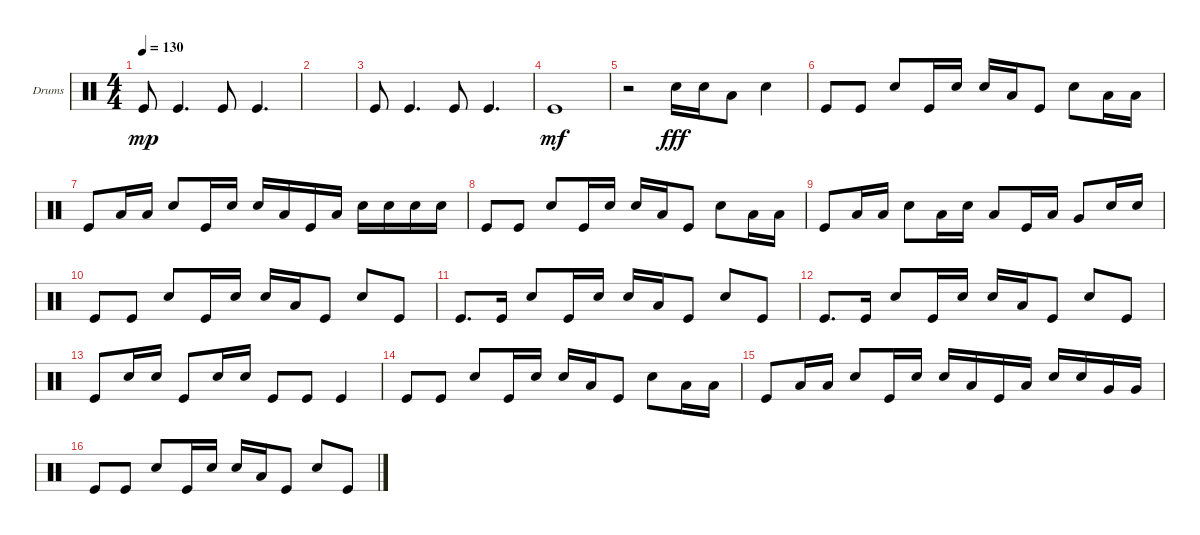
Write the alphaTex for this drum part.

\defaultSystemsLayout 4
\bracketExtendMode groupsimilarinstruments
\firstSystemTrackNameOrientation horizontal
\otherSystemsTrackNameOrientation horizontal
\track ("Helders" "Drums") {instrument percussion}
\staff {score}
\articulation defaults
\ts (4 4)
\tempo 130
\clef neutral
\ks c "Kick (hit)".8{dy mp} "Kick (hit)".4{d} "Kick (hit)".8 "Kick (hit)".4{d}
|
|
"Kick (hit)".8 "Kick (hit)".4{d} "Kick (hit)".8 "Kick (hit)".4{d} |
"Kick (hit)".1{dy mf} |
r.2 "Snare (hit) 2".16{dy fff} "Snare (hit) 2".16 "Low Tom (hit)".8 "Snare (hit) 2".4 |
"Kick (hit)".8 "Kick (hit)".8 "Snare (hit) 2".8 "Kick (hit)".16 "Snare (hit) 2".16 "Snare (hit) 2".16 "Low Tom (hit)".16 "Kick (hit)".8 "Snare (hit) 2".8 "Low Tom (hit)".16 "Low Tom (hit)".16 |
"Kick (hit)".8 "Low Tom (hit)".16 "Low Tom (hit)".16 "Snare (hit) 2".8 "Kick (hit)".16 "Snare (hit) 2".16 "Snare (hit) 2".16 "Low Tom (hit)".16 "Kick (hit)".16 "Low Tom (hit)".16 "Snare (hit) 2".16 "Snare (hit) 2".16 "Snare (hit) 2".16 "Snare (hit) 2".16 |
"Kick (hit)".8 "Kick (hit)".8 "Snare (hit) 2".8 "Kick (hit)".16 "Snare (hit) 2".16 "Snare (hit) 2".16 "Low Tom (hit)".16 "Kick (hit)".8 "Snare (hit) 2".8 "Low Tom (hit)".16 "Low Tom (hit)".16 |
"Kick (hit)".8 "Low Tom (hit)".16 "Low Tom (hit)".16 "Snare (hit) 2".8 "Low Tom (hit)".16 "Snare (hit) 2".16 "Low Tom (hit)".8 "Kick (hit)".16 "Low Tom (hit)".16 "Very Low Tom (hit)".8 "Snare (hit) 2".16 "Snare (hit) 2".16 |
"Kick (hit)".8 "Kick (hit)".8 "Snare (hit) 2".8 "Kick (hit)".16 "Snare (hit) 2".16 "Snare (hit) 2".16 "Low Tom (hit)".16 "Kick (hit)".8 "Snare (hit) 2".8 "Kick (hit)".8 |
"Kick (hit)".8{d} "Kick (hit)".16 "Snare (hit) 2".8 "Kick (hit)".16 "Snare (hit) 2".16 "Snare (hit) 2".16 "Low Tom (hit)".16 "Kick (hit)".8 "Snare (hit) 2".8 "Kick (hit)".8 |
"Kick (hit)".8{d} "Kick (hit)".16 "Snare (hit) 2".8 "Kick (hit)".16 "Snare (hit) 2".16 "Snare (hit) 2".16 "Low Tom (hit)".16 "Kick (hit)".8 "Snare (hit) 2".8 "Kick (hit)".8 |
"Kick (hit)".8 "Snare (hit) 2".16 "Snare (hit) 2".16 "Kick (hit)".8 "Snare (hit) 2".16 "Snare (hit) 2".16 "Kick (hit)".8 "Kick (hit)".8 "Kick (hit)".4 |
"Kick (hit)".8 "Kick (hit)".8 "Snare (hit) 2".8 "Kick (hit)".16 "Snare (hit) 2".16 "Snare (hit) 2".16 "Low Tom (hit)".16 "Kick (hit)".8 "Snare (hit) 2".8 "Low Tom (hit)".16 "Low Tom (hit)".16 |
"Kick (hit)".8 "Low Tom (hit)".16 "Low Tom (hit)".16 "Snare (hit) 2".8 "Kick (hit)".16 "Snare (hit) 2".16 "Snare (hit) 2".16 "Low Tom (hit)".16 "Kick (hit)".16 "Low Tom (hit)".16 "Snare (hit) 2".16 "Snare (hit) 2".16 "Very Low Tom (hit)".16 "Very Low Tom (hit)".16 |
"Kick (hit)".8 "Kick (hit)".8 "Snare (hit) 2".8 "Kick (hit)".16 "Snare (hit) 2".16 "Snare (hit) 2".16 "Low Tom (hit)".16 "Kick (hit)".8 "Snare (hit) 2".8 "Kick (hit)".8
